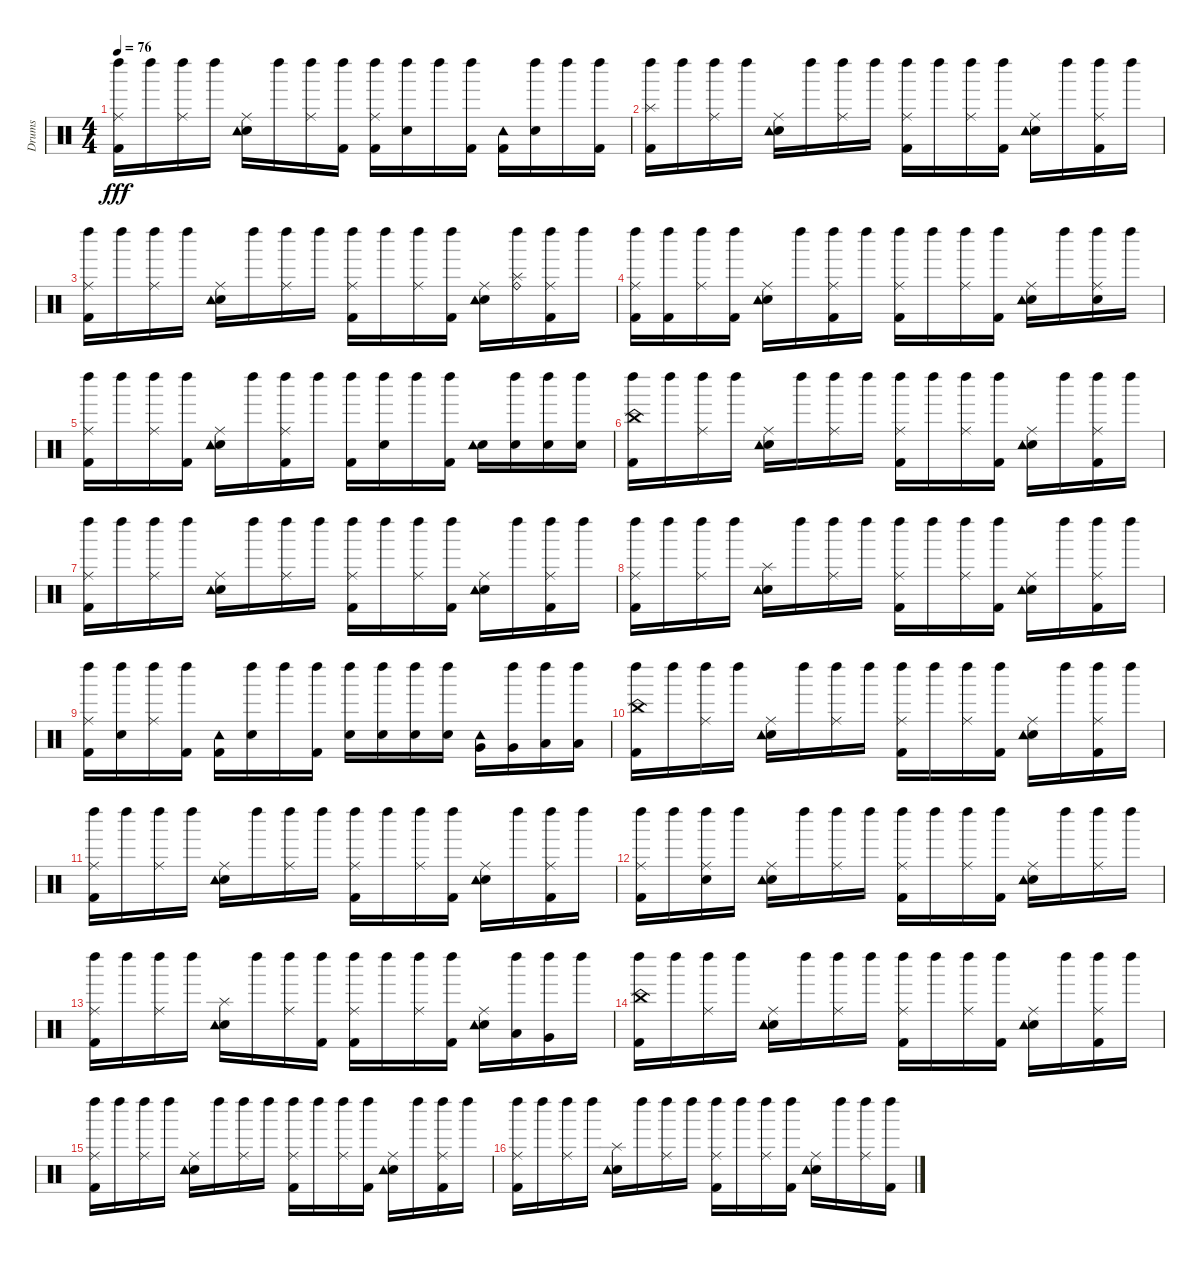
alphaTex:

\track ("Drums" "Drums") {instrument percussion}
\staff {score}
\articulation defaults
\ts (4 4)
\tempo 76
\clef neutral
\ks c
("Kick (hit) 2" "Ride (middle)" "Left Maraca (hit)").16{dy fff} "Left Maraca (hit)".16 ("Ride (middle)" "Left Maraca (hit)").16 "Left Maraca (hit)".16 ("Electric Snare (hit)" "Ride (middle)" "Tambourine (hit)").16 "Left Maraca (hit)".16 ("Ride (middle)" "Left Maraca (hit)").16 ("Kick (hit) 2" "Left Maraca (hit)").16 ("Kick (hit) 2" "Ride (middle)" "Left Maraca (hit)").16 ("Electric Snare (hit)" "Left Maraca (hit)").16 "Left Maraca (hit)".16 ("Kick (hit) 2" "Left Maraca (hit)").16 ("Kick (hit) 2" "Tambourine (hit)").16 ("Electric Snare (hit)" "Left Maraca (hit)").16 "Left Maraca (hit)".16 ("Kick (hit) 2" "Left Maraca (hit)").16 |
("Kick (hit) 2" "Splash (hit)" "Left Maraca (hit)").16 "Left Maraca (hit)".16 ("Ride (middle)" "Left Maraca (hit)").16 "Left Maraca (hit)".16 ("Electric Snare (hit)" "Ride (middle)" "Tambourine (hit)").16 "Left Maraca (hit)".16 ("Ride (middle)" "Left Maraca (hit)").16 "Left Maraca (hit)".16 ("Kick (hit) 2" "Ride (middle)" "Left Maraca (hit)").16 "Left Maraca (hit)".16 ("Ride (middle)" "Left Maraca (hit)").16 ("Kick (hit) 2" "Left Maraca (hit)").16 ("Electric Snare (hit)" "Ride (middle)" "Tambourine (hit)").16 "Left Maraca (hit)".16 ("Kick (hit) 2" "Ride (middle)" "Left Maraca (hit)").16 "Left Maraca (hit)".16 |
("Kick (hit) 2" "Ride (middle)" "Left Maraca (hit)").16 "Left Maraca (hit)".16 ("Ride (middle)" "Left Maraca (hit)").16 "Left Maraca (hit)".16 ("Electric Snare (hit)" "Ride (middle)" "Tambourine (hit)").16 "Left Maraca (hit)".16 ("Ride (middle)" "Left Maraca (hit)").16 "Left Maraca (hit)".16 ("Kick (hit) 2" "Ride (middle)" "Left Maraca (hit)").16 "Left Maraca (hit)".16 ("Ride (middle)" "Left Maraca (hit)").16 ("Kick (hit) 2" "Left Maraca (hit)").16 ("Electric Snare (hit)" "Ride (middle)" "Tambourine (hit)").16 ("Splash (hit)" "Ride (bell)" "Left Maraca (hit)").16 ("Kick (hit) 2" "Ride (middle)" "Left Maraca (hit)").16 "Left Maraca (hit)".16 |
("Kick (hit) 2" "Ride (middle)" "Left Maraca (hit)").16 ("Kick (hit) 2" "Left Maraca (hit)").16 ("Ride (middle)" "Left Maraca (hit)").16 ("Kick (hit) 2" "Left Maraca (hit)").16 ("Electric Snare (hit)" "Ride (middle)" "Tambourine (hit)").16 "Left Maraca (hit)".16 ("Kick (hit) 2" "Ride (middle)" "Left Maraca (hit)").16 "Left Maraca (hit)".16 ("Kick (hit) 2" "Ride (middle)" "Left Maraca (hit)").16 "Left Maraca (hit)".16 ("Ride (middle)" "Left Maraca (hit)").16 ("Kick (hit) 2" "Left Maraca (hit)").16 ("Electric Snare (hit)" "Ride (middle)" "Tambourine (hit)").16 "Left Maraca (hit)".16 ("Electric Snare (hit)" "Ride (middle)" "Left Maraca (hit)").16 "Left Maraca (hit)".16 |
("Kick (hit) 2" "Ride (middle)" "Left Maraca (hit)").16 "Left Maraca (hit)".16 ("Ride (middle)" "Left Maraca (hit)").16 ("Kick (hit) 2" "Left Maraca (hit)").16 ("Electric Snare (hit)" "Ride (middle)" "Tambourine (hit)").16 "Left Maraca (hit)".16 ("Kick (hit) 2" "Ride (middle)" "Left Maraca (hit)").16 "Left Maraca (hit)".16 ("Kick (hit) 2" "Left Maraca (hit)").16 ("Electric Snare (hit)" "Left Maraca (hit)").16 "Left Maraca (hit)".16 ("Kick (hit) 2" "Left Maraca (hit)").16 ("Electric Snare (hit)" "Tambourine (hit)").16 ("Electric Snare (hit)" "Left Maraca (hit)").16 ("Electric Snare (hit)" "Left Maraca (hit)").16 ("Electric Snare (hit)" "Left Maraca (hit)").16 |
("Kick (hit) 2" "China (hit)" "Left Maraca (hit)").16 "Left Maraca (hit)".16 ("Ride (middle)" "Left Maraca (hit)").16 "Left Maraca (hit)".16 ("Electric Snare (hit)" "Ride (middle)" "Tambourine (hit)").16 "Left Maraca (hit)".16 ("Ride (middle)" "Left Maraca (hit)").16 "Left Maraca (hit)".16 ("Kick (hit) 2" "Ride (middle)" "Left Maraca (hit)").16 "Left Maraca (hit)".16 ("Ride (middle)" "Left Maraca (hit)").16 ("Kick (hit) 2" "Left Maraca (hit)").16 ("Electric Snare (hit)" "Ride (middle)" "Tambourine (hit)").16 "Left Maraca (hit)".16 ("Kick (hit) 2" "Ride (middle)" "Left Maraca (hit)").16 "Left Maraca (hit)".16 |
("Kick (hit) 2" "Ride (middle)" "Left Maraca (hit)").16 "Left Maraca (hit)".16 ("Ride (middle)" "Left Maraca (hit)").16 "Left Maraca (hit)".16 ("Electric Snare (hit)" "Ride (middle)" "Tambourine (hit)").16 "Left Maraca (hit)".16 ("Ride (middle)" "Left Maraca (hit)").16 "Left Maraca (hit)".16 ("Kick (hit) 2" "Ride (middle)" "Left Maraca (hit)").16 "Left Maraca (hit)".16 ("Ride (middle)" "Left Maraca (hit)").16 ("Kick (hit) 2" "Left Maraca (hit)").16 ("Electric Snare (hit)" "Ride (middle)" "Tambourine (hit)").16 "Left Maraca (hit)".16 ("Kick (hit) 2" "Ride (middle)" "Left Maraca (hit)").16 "Left Maraca (hit)".16 |
("Kick (hit) 2" "Ride (middle)" "Left Maraca (hit)").16 "Left Maraca (hit)".16 ("Ride (middle)" "Left Maraca (hit)").16 "Left Maraca (hit)".16 ("Electric Snare (hit)" "Splash (hit)" "Tambourine (hit)").16 "Left Maraca (hit)".16 ("Ride (middle)" "Left Maraca (hit)").16 "Left Maraca (hit)".16 ("Kick (hit) 2" "Ride (middle)" "Left Maraca (hit)").16 "Left Maraca (hit)".16 ("Ride (middle)" "Left Maraca (hit)").16 ("Kick (hit) 2" "Left Maraca (hit)").16 ("Electric Snare (hit)" "Ride (middle)" "Tambourine (hit)").16 "Left Maraca (hit)".16 ("Kick (hit) 2" "Ride (middle)" "Left Maraca (hit)").16 "Left Maraca (hit)".16 |
("Kick (hit) 2" "Ride (middle)" "Left Maraca (hit)").16 ("Electric Snare (hit)" "Left Maraca (hit)").16 ("Ride (middle)" "Left Maraca (hit)").16 ("Kick (hit) 2" "Left Maraca (hit)").16 ("Kick (hit) 2" "Tambourine (hit)").16 ("Electric Snare (hit)" "Left Maraca (hit)").16 "Left Maraca (hit)".16 ("Kick (hit) 2" "Left Maraca (hit)").16 ("Electric Snare (hit)" "Left Maraca (hit)").16 ("Electric Snare (hit)" "Left Maraca (hit)").16 ("Electric Snare (hit)" "Left Maraca (hit)").16 ("Electric Snare (hit)" "Left Maraca (hit)").16 ("Very Low Tom (hit)" "Tambourine (hit)").16 ("Very Low Tom (hit)" "Left Maraca (hit)").16 ("Low Floor Tom (hit)" "Left Maraca (hit)").16 ("Low Floor Tom (hit)" "Left Maraca (hit)").16 |
("Kick (hit) 2" "China (hit)" "Left Maraca (hit)").16 "Left Maraca (hit)".16 ("Ride (middle)" "Left Maraca (hit)").16 "Left Maraca (hit)".16 ("Electric Snare (hit)" "Ride (middle)" "Tambourine (hit)").16 "Left Maraca (hit)".16 ("Ride (middle)" "Left Maraca (hit)").16 "Left Maraca (hit)".16 ("Kick (hit) 2" "Ride (middle)" "Left Maraca (hit)").16 "Left Maraca (hit)".16 ("Ride (middle)" "Left Maraca (hit)").16 ("Kick (hit) 2" "Left Maraca (hit)").16 ("Electric Snare (hit)" "Ride (middle)" "Tambourine (hit)").16 "Left Maraca (hit)".16 ("Kick (hit) 2" "Ride (middle)" "Left Maraca (hit)").16 "Left Maraca (hit)".16 |
("Kick (hit) 2" "Ride (middle)" "Left Maraca (hit)").16 "Left Maraca (hit)".16 ("Ride (middle)" "Left Maraca (hit)").16 "Left Maraca (hit)".16 ("Electric Snare (hit)" "Ride (middle)" "Tambourine (hit)").16 "Left Maraca (hit)".16 ("Ride (middle)" "Left Maraca (hit)").16 "Left Maraca (hit)".16 ("Kick (hit) 2" "Ride (middle)" "Left Maraca (hit)").16 "Left Maraca (hit)".16 ("Ride (middle)" "Left Maraca (hit)").16 ("Kick (hit) 2" "Left Maraca (hit)").16 ("Electric Snare (hit)" "Ride (middle)" "Tambourine (hit)").16 "Left Maraca (hit)".16 ("Kick (hit) 2" "Ride (middle)" "Left Maraca (hit)").16 "Left Maraca (hit)".16 |
("Kick (hit) 2" "Ride (middle)" "Left Maraca (hit)").16 "Left Maraca (hit)".16 ("Electric Snare (hit)" "Ride (middle)" "Left Maraca (hit)").16 "Left Maraca (hit)".16 ("Electric Snare (hit)" "Ride (middle)" "Tambourine (hit)").16 "Left Maraca (hit)".16 ("Ride (middle)" "Left Maraca (hit)").16 "Left Maraca (hit)".16 ("Kick (hit) 2" "Ride (middle)" "Left Maraca (hit)").16 "Left Maraca (hit)".16 ("Ride (middle)" "Left Maraca (hit)").16 ("Kick (hit) 2" "Left Maraca (hit)").16 ("Electric Snare (hit)" "Ride (middle)" "Tambourine (hit)").16 "Left Maraca (hit)".16 ("Ride (middle)" "Left Maraca (hit)").16 "Left Maraca (hit)".16 |
("Kick (hit) 2" "Ride (middle)" "Left Maraca (hit)").16 "Left Maraca (hit)".16 ("Ride (middle)" "Left Maraca (hit)").16 "Left Maraca (hit)".16 ("Electric Snare (hit)" "Splash (hit)" "Tambourine (hit)").16 "Left Maraca (hit)".16 ("Ride (middle)" "Left Maraca (hit)").16 ("Kick (hit) 2" "Left Maraca (hit)").16 ("Kick (hit) 2" "Ride (middle)" "Left Maraca (hit)").16 "Left Maraca (hit)".16 ("Ride (middle)" "Left Maraca (hit)").16 ("Kick (hit) 2" "Left Maraca (hit)").16 ("Electric Snare (hit)" "Ride (middle)" "Tambourine (hit)").16 ("Low Tom (hit)" "Left Maraca (hit)").16 ("Very Low Tom (hit)" "Left Maraca (hit)").16 "Left Maraca (hit)".16 |
("Kick (hit) 2" "China (hit)" "Left Maraca (hit)").16 "Left Maraca (hit)".16 ("Ride (middle)" "Left Maraca (hit)").16 "Left Maraca (hit)".16 ("Electric Snare (hit)" "Ride (middle)" "Tambourine (hit)").16 "Left Maraca (hit)".16 ("Ride (middle)" "Left Maraca (hit)").16 "Left Maraca (hit)".16 ("Kick (hit) 2" "Ride (middle)" "Left Maraca (hit)").16 "Left Maraca (hit)".16 ("Ride (middle)" "Left Maraca (hit)").16 ("Kick (hit) 2" "Left Maraca (hit)").16 ("Electric Snare (hit)" "Ride (middle)" "Tambourine (hit)").16 "Left Maraca (hit)".16 ("Kick (hit) 2" "Ride (middle)" "Left Maraca (hit)").16 "Left Maraca (hit)".16 |
("Kick (hit) 2" "Ride (middle)" "Left Maraca (hit)").16 "Left Maraca (hit)".16 ("Ride (middle)" "Left Maraca (hit)").16 "Left Maraca (hit)".16 ("Electric Snare (hit)" "Ride (middle)" "Tambourine (hit)").16 "Left Maraca (hit)".16 ("Ride (middle)" "Left Maraca (hit)").16 "Left Maraca (hit)".16 ("Kick (hit) 2" "Ride (middle)" "Left Maraca (hit)").16 "Left Maraca (hit)".16 ("Ride (middle)" "Left Maraca (hit)").16 ("Kick (hit) 2" "Left Maraca (hit)").16 ("Electric Snare (hit)" "Ride (middle)" "Tambourine (hit)").16 "Left Maraca (hit)".16 ("Kick (hit) 2" "Ride (middle)" "Left Maraca (hit)").16 "Left Maraca (hit)".16 |
("Kick (hit) 2" "Ride (middle)" "Left Maraca (hit)").16 "Left Maraca (hit)".16 ("Ride (middle)" "Left Maraca (hit)").16 "Left Maraca (hit)".16 ("Electric Snare (hit)" "Splash (hit)" "Tambourine (hit)").16 "Left Maraca (hit)".16 ("Ride (middle)" "Left Maraca (hit)").16 "Left Maraca (hit)".16 ("Kick (hit) 2" "Ride (middle)" "Left Maraca (hit)").16 "Left Maraca (hit)".16 ("Ride (middle)" "Left Maraca (hit)").16 ("Kick (hit) 2" "Left Maraca (hit)").16 ("Electric Snare (hit)" "Ride (middle)" "Tambourine (hit)").16 "Left Maraca (hit)".16 ("Ride (middle)" "Left Maraca (hit)").16 ("Kick (hit) 2" "Left Maraca (hit)").16
